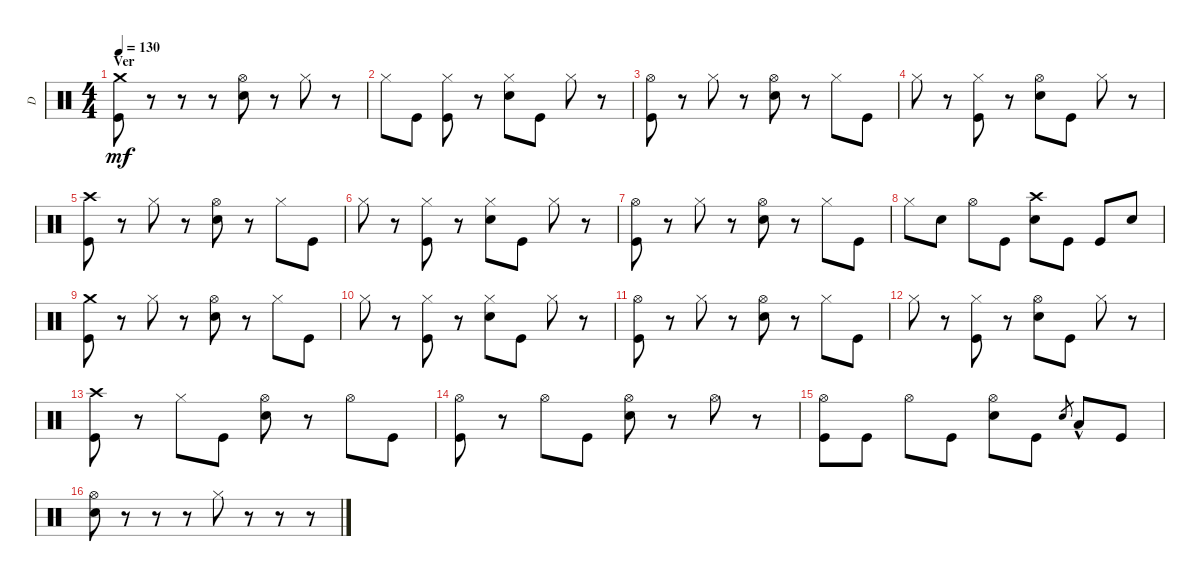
\track ("D" "D") {instrument percussion}
\staff {score}
\articulation defaults
\ts (4 4)
\section ("" "Ver")
\tempo 130
\clef neutral
\ks c
("Kick (hit)" "Crash medium (hit)").8{dy mf} r.8 r.8 r.8 ("Snare (hit) 2" "Hi-Hat (open)").8 r.8 "Hi-Hat (closed)".8 r.8 |
"Hi-Hat (closed)".8 "Kick (hit)".8 ("Hi-Hat (closed)" "Kick (hit)").8 r.8 ("Hi-Hat (closed)" "Snare (hit) 2").8 "Kick (hit)".8 "Hi-Hat (closed)".8 r.8 |
("Kick (hit)" "Hi-Hat (open)").8 r.8 "Hi-Hat (closed)".8 r.8 ("Snare (hit) 2" "Hi-Hat (open)").8 r.8 "Hi-Hat (closed)".8 "Kick (hit)".8 |
"Hi-Hat (closed)".8 r.8 ("Hi-Hat (closed)" "Kick (hit)").8 r.8 ("Hi-Hat (open)" "Snare (hit) 2").8 "Kick (hit)".8 "Hi-Hat (closed)".8 r.8 |
("Kick (hit)" "Crash high (hit)").8 r.8 "Hi-Hat (closed)".8 r.8 ("Snare (hit) 2" "Hi-Hat (open)").8 r.8 "Hi-Hat (closed)".8 "Kick (hit)".8 |
"Hi-Hat (closed)".8 r.8 ("Hi-Hat (closed)" "Kick (hit)").8 r.8 ("Hi-Hat (closed)" "Snare (hit) 2").8 "Kick (hit)".8 "Hi-Hat (closed)".8 r.8 |
("Kick (hit)" "Hi-Hat (open)").8 r.8 "Hi-Hat (closed)".8 r.8 ("Snare (hit) 2" "Hi-Hat (open)").8 r.8 "Hi-Hat (closed)".8 "Kick (hit)".8 |
"Hi-Hat (closed)".8 "Snare (hit) 2".8 "Hi-Hat (open)".8 "Kick (hit)".8 ("Snare (hit) 2" "Crash high (hit)").8 "Kick (hit)".8 "Kick (hit)".8 "Snare (hit) 2".8 |
("Kick (hit)" "Crash medium (hit)").8 r.8 "Hi-Hat (closed)".8 r.8 ("Snare (hit) 2" "Hi-Hat (open)").8 r.8 "Hi-Hat (closed)".8 "Kick (hit)".8 |
"Hi-Hat (closed)".8 r.8 ("Hi-Hat (closed)" "Kick (hit)").8 r.8 ("Hi-Hat (closed)" "Snare (hit) 2").8 "Kick (hit)".8 "Hi-Hat (closed)".8 r.8 |
("Kick (hit)" "Hi-Hat (open)").8 r.8 "Hi-Hat (closed)".8 r.8 ("Snare (hit) 2" "Hi-Hat (open)").8 r.8 "Hi-Hat (closed)".8 "Kick (hit)".8 |
"Hi-Hat (closed)".8 r.8 ("Hi-Hat (closed)" "Kick (hit)").8 r.8 ("Hi-Hat (open)" "Snare (hit) 2").8 "Kick (hit)".8 "Hi-Hat (closed)".8 r.8 |
("Kick (hit)" "Crash high (hit)").8 r.8 "Hi-Hat (closed)".8 "Kick (hit)".8 ("Snare (hit) 2" "Hi-Hat (open)").8 r.8 "Hi-Hat (open)".8 "Kick (hit)".8 |
("Hi-Hat (open)" "Kick (hit)").8 r.8 "Hi-Hat (open)".8 "Kick (hit)".8 ("Hi-Hat (open)" "Snare (hit) 2").8 r.8 "Hi-Hat (open)".8 r.8 |
("Kick (hit)" "Hi-Hat (open)").8 "Kick (hit)".8 "Hi-Hat (open)".8 "Kick (hit)".8 ("Snare (hit) 2" "Hi-Hat (open)").8 "Kick (hit)".8 "Snare (hit)".8{gr} "Low Floor Tom (hit)"{hac}.8 "Kick (hit)".8 |
("Hi-Hat (open)" "Snare (hit) 2").8 r.8 r.8 r.8 "Hi-Hat (closed)".8 r.8 r.8 r.8
